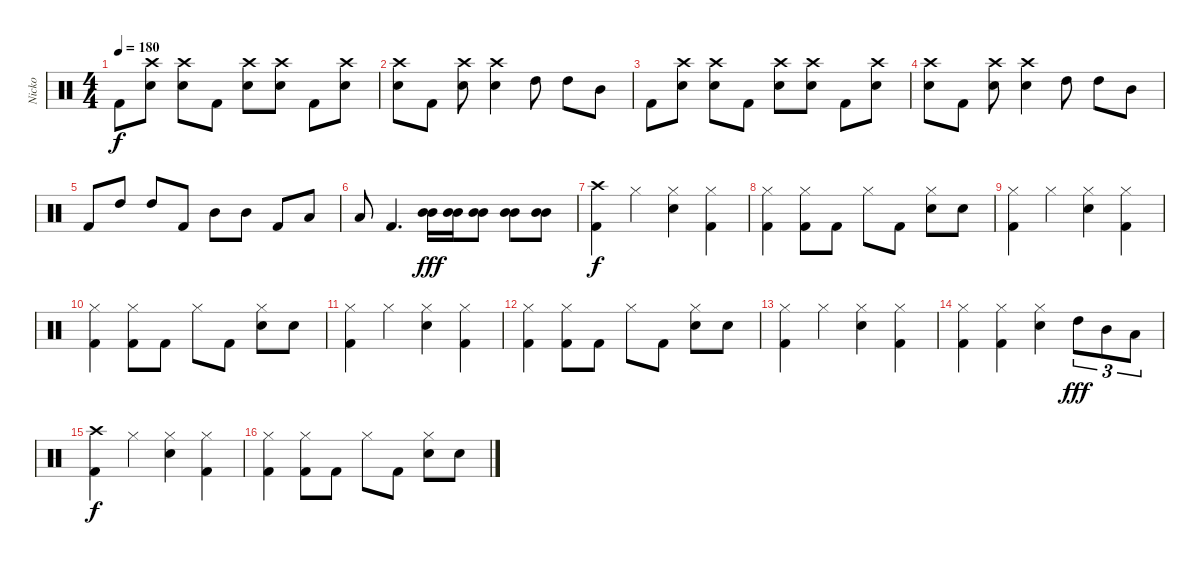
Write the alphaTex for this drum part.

\track ("Nicko" "Nicko") {instrument percussion}
\staff {score}
\articulation defaults
\ts (4 4)
\tempo 180
\clef neutral
\ks c "Kick (hit) 2".8{dy f}
("Crash high (hit)" "Snare (hit) 2").8 ("Crash high (hit)" "Snare (hit) 2").8 "Kick (hit) 2".8 ("Crash high (hit)" "Snare (hit) 2").8 ("Crash high (hit)" "Snare (hit) 2").8 "Kick (hit) 2".8 ("Crash high (hit)" "Snare (hit) 2").8 |
("Crash high (hit)" "Snare (hit) 2").8 "Kick (hit) 2".8 ("Crash high (hit)" "Snare (hit) 2").8 ("Crash high (hit)" "Snare (hit) 2").4 "High Tom (hit)".8 "High Tom (hit)".8 "Mid Tom (hit)".8 |
"Kick (hit) 2".8 ("Crash high (hit)" "Snare (hit) 2").8 ("Crash high (hit)" "Snare (hit) 2").8 "Kick (hit) 2".8 ("Crash high (hit)" "Snare (hit) 2").8 ("Crash high (hit)" "Snare (hit) 2").8 "Kick (hit) 2".8 ("Crash high (hit)" "Snare (hit) 2").8 |
("Crash high (hit)" "Snare (hit) 2").8 "Kick (hit) 2".8 ("Crash high (hit)" "Snare (hit) 2").8 ("Crash high (hit)" "Snare (hit) 2").4 "High Tom (hit)".8 "High Tom (hit)".8 "Mid Tom (hit)".8 |
"Kick (hit) 2".8 "High Tom (hit)".8 "High Tom (hit)".8 "Kick (hit) 2".8 "Mid Tom (hit)".8 "Mid Tom (hit)".8 "Kick (hit) 2".8 "Low Tom (hit)".8 |
"Low Tom (hit)".8 "Kick (hit) 2".4{d} ("Mid Tom (hit)" "Mid Tom (hit)").16{dy fff} ("Mid Tom (hit)" "Mid Tom (hit)").16 ("Mid Tom (hit)" "Mid Tom (hit)").8 ("Mid Tom (hit)" "Mid Tom (hit)").8 ("Mid Tom (hit)" "Mid Tom (hit)").8 |
("Crash high (hit)" "Kick (hit) 2").4{dy f} "Hi-Hat (closed)".4 ("Hi-Hat (closed)" "Snare (hit) 2").4 ("Hi-Hat (closed)" "Kick (hit) 2").4 |
("Hi-Hat (closed)" "Kick (hit) 2").4 ("Hi-Hat (closed)" "Kick (hit) 2").8 "Kick (hit) 2".8 "Hi-Hat (closed)".8 "Kick (hit) 2".8 ("Hi-Hat (closed)" "Snare (hit) 2").8 "Snare (hit) 2".8 |
("Hi-Hat (closed)" "Kick (hit) 2").4 "Hi-Hat (closed)".4 ("Hi-Hat (closed)" "Snare (hit) 2").4 ("Hi-Hat (closed)" "Kick (hit) 2").4 |
("Hi-Hat (closed)" "Kick (hit) 2").4 ("Hi-Hat (closed)" "Kick (hit) 2").8 "Kick (hit) 2".8 "Hi-Hat (closed)".8 "Kick (hit) 2".8 ("Hi-Hat (closed)" "Snare (hit) 2").8 "Snare (hit) 2".8 |
("Hi-Hat (closed)" "Kick (hit) 2").4 "Hi-Hat (closed)".4 ("Hi-Hat (closed)" "Snare (hit) 2").4 ("Hi-Hat (closed)" "Kick (hit) 2").4 |
("Hi-Hat (closed)" "Kick (hit) 2").4 ("Hi-Hat (closed)" "Kick (hit) 2").8 "Kick (hit) 2".8 "Hi-Hat (closed)".8 "Kick (hit) 2".8 ("Hi-Hat (closed)" "Snare (hit) 2").8 "Snare (hit) 2".8 |
("Hi-Hat (closed)" "Kick (hit) 2").4 "Hi-Hat (closed)".4 ("Hi-Hat (closed)" "Snare (hit) 2").4 ("Hi-Hat (closed)" "Kick (hit) 2").4 |
("Hi-Hat (closed)" "Kick (hit) 2").4 ("Hi-Hat (closed)" "Kick (hit) 2").4 ("Hi-Hat (closed)" "Snare (hit) 2").4 "High Tom (hit)".8{tu (3 2) dy fff} "Mid Tom (hit)".8{tu (3 2)} "Low Tom (hit)".8{tu (3 2)} |
("Crash high (hit)" "Kick (hit) 2").4{dy f} "Hi-Hat (closed)".4 ("Hi-Hat (closed)" "Snare (hit) 2").4 ("Hi-Hat (closed)" "Kick (hit) 2").4 |
("Hi-Hat (closed)" "Kick (hit) 2").4 ("Hi-Hat (closed)" "Kick (hit) 2").8 "Kick (hit) 2".8 "Hi-Hat (closed)".8 "Kick (hit) 2".8 ("Hi-Hat (closed)" "Snare (hit) 2").8 "Snare (hit) 2".8
